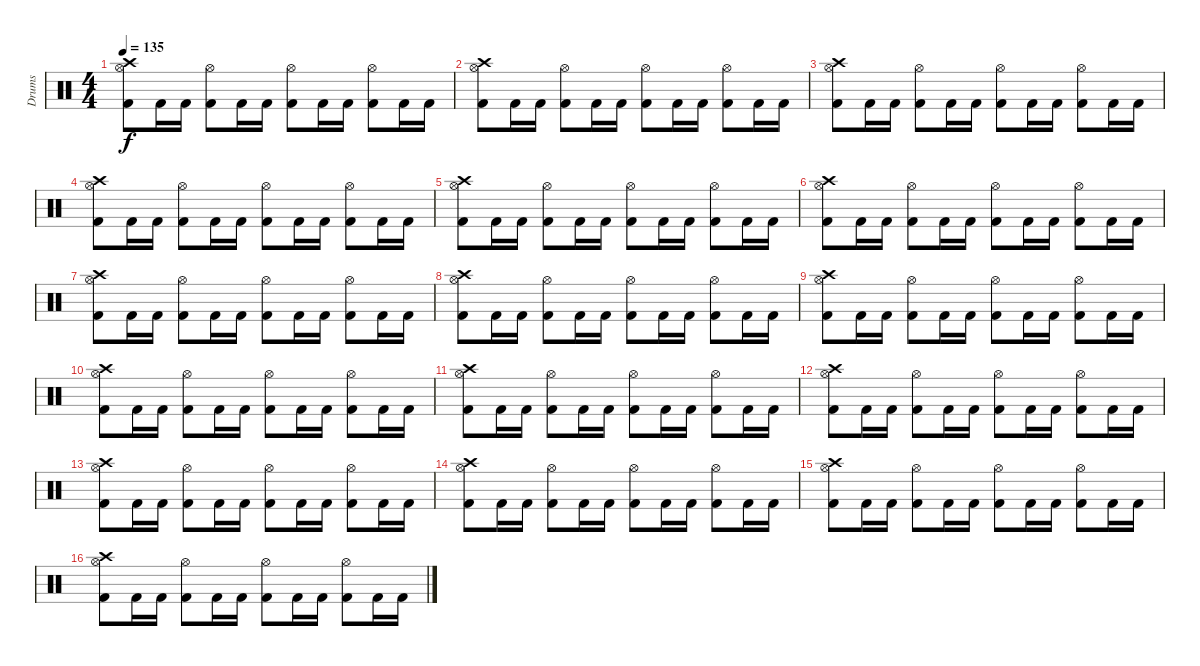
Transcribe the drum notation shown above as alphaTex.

\track ("Drums" "Drums") {instrument percussion}
\staff {score}
\articulation defaults
\ts (4 4)
\tempo 135
\clef neutral
\ks c
("Crash high (hit)" "Hi-Hat (open)" "Kick (hit) 2").8{dy f} "Kick (hit) 2".16 "Kick (hit) 2".16 ("Hi-Hat (open)" "Kick (hit) 2").8 "Kick (hit) 2".16 "Kick (hit) 2".16 ("Hi-Hat (open)" "Kick (hit) 2").8 "Kick (hit) 2".16 "Kick (hit) 2".16 ("Hi-Hat (open)" "Kick (hit) 2").8 "Kick (hit) 2".16 "Kick (hit) 2".16 |
("Crash high (hit)" "Hi-Hat (open)" "Kick (hit) 2").8 "Kick (hit) 2".16 "Kick (hit) 2".16 ("Hi-Hat (open)" "Kick (hit) 2").8 "Kick (hit) 2".16 "Kick (hit) 2".16 ("Hi-Hat (open)" "Kick (hit) 2").8 "Kick (hit) 2".16 "Kick (hit) 2".16 ("Hi-Hat (open)" "Kick (hit) 2").8 "Kick (hit) 2".16 "Kick (hit) 2".16 |
("Crash high (hit)" "Hi-Hat (open)" "Kick (hit) 2").8 "Kick (hit) 2".16 "Kick (hit) 2".16 ("Hi-Hat (open)" "Kick (hit) 2").8 "Kick (hit) 2".16 "Kick (hit) 2".16 ("Hi-Hat (open)" "Kick (hit) 2").8 "Kick (hit) 2".16 "Kick (hit) 2".16 ("Hi-Hat (open)" "Kick (hit) 2").8 "Kick (hit) 2".16 "Kick (hit) 2".16 |
("Crash high (hit)" "Hi-Hat (open)" "Kick (hit) 2").8 "Kick (hit) 2".16 "Kick (hit) 2".16 ("Hi-Hat (open)" "Kick (hit) 2").8 "Kick (hit) 2".16 "Kick (hit) 2".16 ("Hi-Hat (open)" "Kick (hit) 2").8 "Kick (hit) 2".16 "Kick (hit) 2".16 ("Hi-Hat (open)" "Kick (hit) 2").8 "Kick (hit) 2".16 "Kick (hit) 2".16 |
("Crash high (hit)" "Hi-Hat (open)" "Kick (hit) 2").8 "Kick (hit) 2".16 "Kick (hit) 2".16 ("Hi-Hat (open)" "Kick (hit) 2").8 "Kick (hit) 2".16 "Kick (hit) 2".16 ("Hi-Hat (open)" "Kick (hit) 2").8 "Kick (hit) 2".16 "Kick (hit) 2".16 ("Hi-Hat (open)" "Kick (hit) 2").8 "Kick (hit) 2".16 "Kick (hit) 2".16 |
("Crash high (hit)" "Hi-Hat (open)" "Kick (hit) 2").8 "Kick (hit) 2".16 "Kick (hit) 2".16 ("Hi-Hat (open)" "Kick (hit) 2").8 "Kick (hit) 2".16 "Kick (hit) 2".16 ("Hi-Hat (open)" "Kick (hit) 2").8 "Kick (hit) 2".16 "Kick (hit) 2".16 ("Hi-Hat (open)" "Kick (hit) 2").8 "Kick (hit) 2".16 "Kick (hit) 2".16 |
("Crash high (hit)" "Hi-Hat (open)" "Kick (hit) 2").8 "Kick (hit) 2".16 "Kick (hit) 2".16 ("Hi-Hat (open)" "Kick (hit) 2").8 "Kick (hit) 2".16 "Kick (hit) 2".16 ("Hi-Hat (open)" "Kick (hit) 2").8 "Kick (hit) 2".16 "Kick (hit) 2".16 ("Hi-Hat (open)" "Kick (hit) 2").8 "Kick (hit) 2".16 "Kick (hit) 2".16 |
("Crash high (hit)" "Hi-Hat (open)" "Kick (hit) 2").8 "Kick (hit) 2".16 "Kick (hit) 2".16 ("Hi-Hat (open)" "Kick (hit) 2").8 "Kick (hit) 2".16 "Kick (hit) 2".16 ("Hi-Hat (open)" "Kick (hit) 2").8 "Kick (hit) 2".16 "Kick (hit) 2".16 ("Hi-Hat (open)" "Kick (hit) 2").8 "Kick (hit) 2".16 "Kick (hit) 2".16 |
("Crash high (hit)" "Hi-Hat (open)" "Kick (hit) 2").8 "Kick (hit) 2".16 "Kick (hit) 2".16 ("Hi-Hat (open)" "Kick (hit) 2").8 "Kick (hit) 2".16 "Kick (hit) 2".16 ("Hi-Hat (open)" "Kick (hit) 2").8 "Kick (hit) 2".16 "Kick (hit) 2".16 ("Hi-Hat (open)" "Kick (hit) 2").8 "Kick (hit) 2".16 "Kick (hit) 2".16 |
("Crash high (hit)" "Hi-Hat (open)" "Kick (hit) 2").8 "Kick (hit) 2".16 "Kick (hit) 2".16 ("Hi-Hat (open)" "Kick (hit) 2").8 "Kick (hit) 2".16 "Kick (hit) 2".16 ("Hi-Hat (open)" "Kick (hit) 2").8 "Kick (hit) 2".16 "Kick (hit) 2".16 ("Hi-Hat (open)" "Kick (hit) 2").8 "Kick (hit) 2".16 "Kick (hit) 2".16 |
("Crash high (hit)" "Hi-Hat (open)" "Kick (hit) 2").8 "Kick (hit) 2".16 "Kick (hit) 2".16 ("Hi-Hat (open)" "Kick (hit) 2").8 "Kick (hit) 2".16 "Kick (hit) 2".16 ("Hi-Hat (open)" "Kick (hit) 2").8 "Kick (hit) 2".16 "Kick (hit) 2".16 ("Hi-Hat (open)" "Kick (hit) 2").8 "Kick (hit) 2".16 "Kick (hit) 2".16 |
("Crash high (hit)" "Hi-Hat (open)" "Kick (hit) 2").8 "Kick (hit) 2".16 "Kick (hit) 2".16 ("Hi-Hat (open)" "Kick (hit) 2").8 "Kick (hit) 2".16 "Kick (hit) 2".16 ("Hi-Hat (open)" "Kick (hit) 2").8 "Kick (hit) 2".16 "Kick (hit) 2".16 ("Hi-Hat (open)" "Kick (hit) 2").8 "Kick (hit) 2".16 "Kick (hit) 2".16 |
("Crash high (hit)" "Hi-Hat (open)" "Kick (hit) 2").8 "Kick (hit) 2".16 "Kick (hit) 2".16 ("Hi-Hat (open)" "Kick (hit) 2").8 "Kick (hit) 2".16 "Kick (hit) 2".16 ("Hi-Hat (open)" "Kick (hit) 2").8 "Kick (hit) 2".16 "Kick (hit) 2".16 ("Hi-Hat (open)" "Kick (hit) 2").8 "Kick (hit) 2".16 "Kick (hit) 2".16 |
("Crash high (hit)" "Hi-Hat (open)" "Kick (hit) 2").8 "Kick (hit) 2".16 "Kick (hit) 2".16 ("Hi-Hat (open)" "Kick (hit) 2").8 "Kick (hit) 2".16 "Kick (hit) 2".16 ("Hi-Hat (open)" "Kick (hit) 2").8 "Kick (hit) 2".16 "Kick (hit) 2".16 ("Hi-Hat (open)" "Kick (hit) 2").8 "Kick (hit) 2".16 "Kick (hit) 2".16 |
("Crash high (hit)" "Hi-Hat (open)" "Kick (hit) 2").8 "Kick (hit) 2".16 "Kick (hit) 2".16 ("Hi-Hat (open)" "Kick (hit) 2").8 "Kick (hit) 2".16 "Kick (hit) 2".16 ("Hi-Hat (open)" "Kick (hit) 2").8 "Kick (hit) 2".16 "Kick (hit) 2".16 ("Hi-Hat (open)" "Kick (hit) 2").8 "Kick (hit) 2".16 "Kick (hit) 2".16 |
("Crash high (hit)" "Hi-Hat (open)" "Kick (hit) 2").8 "Kick (hit) 2".16 "Kick (hit) 2".16 ("Hi-Hat (open)" "Kick (hit) 2").8 "Kick (hit) 2".16 "Kick (hit) 2".16 ("Hi-Hat (open)" "Kick (hit) 2").8 "Kick (hit) 2".16 "Kick (hit) 2".16 ("Hi-Hat (open)" "Kick (hit) 2").8 "Kick (hit) 2".16 "Kick (hit) 2".16
